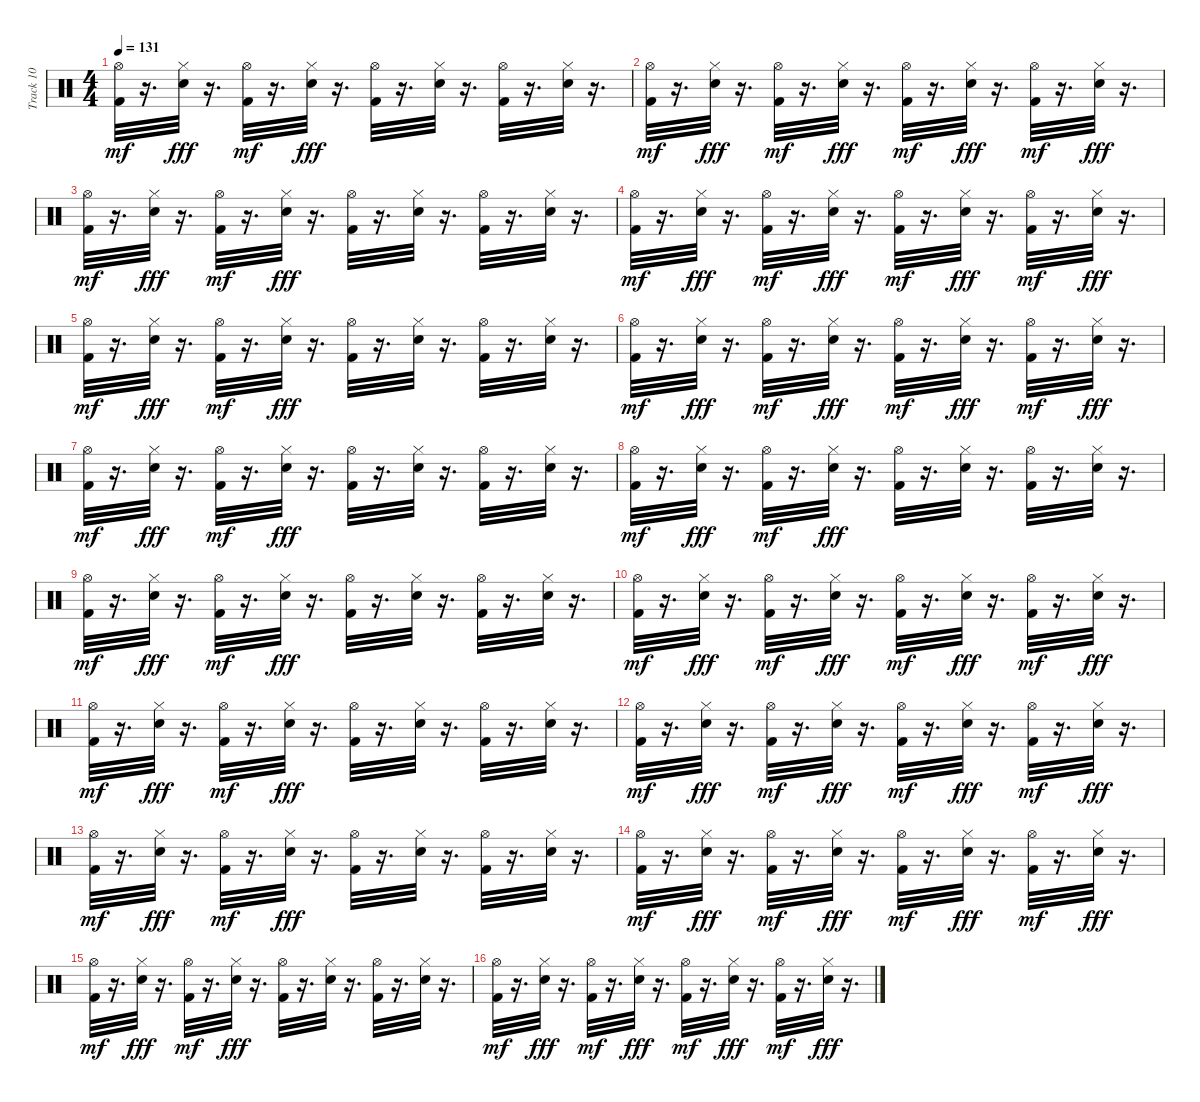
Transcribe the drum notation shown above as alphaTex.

\track ("Track 10" "Track 10") {instrument percussion}
\staff {score}
\articulation defaults
\ts (4 4)
\tempo 131
\clef neutral
\ks c
("Kick (hit) 2" "Hi-Hat (open)").32{dy mf} r.16{d} ("Snare (hit) 2" "Hi-Hat (closed)").32{dy fff} r.16{d} ("Kick (hit) 2" "Hi-Hat (open)").32{dy mf} r.16{d} ("Snare (hit) 2" "Hi-Hat (closed)").32{dy fff} r.16{d} ("Kick (hit) 2" "Hi-Hat (open)").32 r.16{d} ("Snare (hit) 2" "Hi-Hat (closed)").32 r.16{d} ("Kick (hit) 2" "Hi-Hat (open)").32 r.16{d} ("Snare (hit) 2" "Hi-Hat (closed)").32 r.16{d} |
("Kick (hit) 2" "Hi-Hat (open)").32{dy mf} r.16{d} ("Snare (hit) 2" "Hi-Hat (closed)").32{dy fff} r.16{d} ("Kick (hit) 2" "Hi-Hat (open)").32{dy mf} r.16{d} ("Snare (hit) 2" "Hi-Hat (closed)").32{dy fff} r.16{d} ("Kick (hit) 2" "Hi-Hat (open)").32{dy mf} r.16{d} ("Snare (hit) 2" "Hi-Hat (closed)").32{dy fff} r.16{d} ("Kick (hit) 2" "Hi-Hat (open)").32{dy mf} r.16{d} ("Snare (hit) 2" "Hi-Hat (closed)").32{dy fff} r.16{d} |
("Kick (hit) 2" "Hi-Hat (open)").32{dy mf} r.16{d} ("Snare (hit) 2" "Hi-Hat (closed)").32{dy fff} r.16{d} ("Kick (hit) 2" "Hi-Hat (open)").32{dy mf} r.16{d} ("Snare (hit) 2" "Hi-Hat (closed)").32{dy fff} r.16{d} ("Kick (hit) 2" "Hi-Hat (open)").32 r.16{d} ("Snare (hit) 2" "Hi-Hat (closed)").32 r.16{d} ("Kick (hit) 2" "Hi-Hat (open)").32 r.16{d} ("Snare (hit) 2" "Hi-Hat (closed)").32 r.16{d} |
("Kick (hit) 2" "Hi-Hat (open)").32{dy mf} r.16{d} ("Snare (hit) 2" "Hi-Hat (closed)").32{dy fff} r.16{d} ("Kick (hit) 2" "Hi-Hat (open)").32{dy mf} r.16{d} ("Snare (hit) 2" "Hi-Hat (closed)").32{dy fff} r.16{d} ("Kick (hit) 2" "Hi-Hat (open)").32{dy mf} r.16{d} ("Snare (hit) 2" "Hi-Hat (closed)").32{dy fff} r.16{d} ("Kick (hit) 2" "Hi-Hat (open)").32{dy mf} r.16{d} ("Snare (hit) 2" "Hi-Hat (closed)").32{dy fff} r.16{d} |
("Kick (hit) 2" "Hi-Hat (open)").32{dy mf} r.16{d} ("Snare (hit) 2" "Hi-Hat (closed)").32{dy fff} r.16{d} ("Kick (hit) 2" "Hi-Hat (open)").32{dy mf} r.16{d} ("Snare (hit) 2" "Hi-Hat (closed)").32{dy fff} r.16{d} ("Kick (hit) 2" "Hi-Hat (open)").32 r.16{d} ("Snare (hit) 2" "Hi-Hat (closed)").32 r.16{d} ("Kick (hit) 2" "Hi-Hat (open)").32 r.16{d} ("Snare (hit) 2" "Hi-Hat (closed)").32 r.16{d} |
("Kick (hit) 2" "Hi-Hat (open)").32{dy mf} r.16{d} ("Snare (hit) 2" "Hi-Hat (closed)").32{dy fff} r.16{d} ("Kick (hit) 2" "Hi-Hat (open)").32{dy mf} r.16{d} ("Snare (hit) 2" "Hi-Hat (closed)").32{dy fff} r.16{d} ("Kick (hit) 2" "Hi-Hat (open)").32{dy mf} r.16{d} ("Snare (hit) 2" "Hi-Hat (closed)").32{dy fff} r.16{d} ("Kick (hit) 2" "Hi-Hat (open)").32{dy mf} r.16{d} ("Snare (hit) 2" "Hi-Hat (closed)").32{dy fff} r.16{d} |
("Kick (hit) 2" "Hi-Hat (open)").32{dy mf} r.16{d} ("Snare (hit) 2" "Hi-Hat (closed)").32{dy fff} r.16{d} ("Kick (hit) 2" "Hi-Hat (open)").32{dy mf} r.16{d} ("Snare (hit) 2" "Hi-Hat (closed)").32{dy fff} r.16{d} ("Kick (hit) 2" "Hi-Hat (open)").32 r.16{d} ("Snare (hit) 2" "Hi-Hat (closed)").32 r.16{d} ("Kick (hit) 2" "Hi-Hat (open)").32 r.16{d} ("Snare (hit) 2" "Hi-Hat (closed)").32 r.16{d} |
("Kick (hit) 2" "Hi-Hat (open)").32{dy mf} r.16{d} ("Snare (hit) 2" "Hi-Hat (closed)").32{dy fff} r.16{d} ("Kick (hit) 2" "Hi-Hat (open)").32{dy mf} r.16{d} ("Snare (hit) 2" "Hi-Hat (closed)").32{dy fff} r.16{d} ("Kick (hit) 2" "Hi-Hat (open)").32 r.16{d} ("Snare (hit) 2" "Hi-Hat (closed)").32 r.16{d} ("Kick (hit) 2" "Hi-Hat (open)").32 r.16{d} ("Snare (hit) 2" "Hi-Hat (closed)").32 r.16{d} |
("Kick (hit) 2" "Hi-Hat (open)").32{dy mf} r.16{d} ("Snare (hit) 2" "Hi-Hat (closed)").32{dy fff} r.16{d} ("Kick (hit) 2" "Hi-Hat (open)").32{dy mf} r.16{d} ("Snare (hit) 2" "Hi-Hat (closed)").32{dy fff} r.16{d} ("Kick (hit) 2" "Hi-Hat (open)").32 r.16{d} ("Snare (hit) 2" "Hi-Hat (closed)").32 r.16{d} ("Kick (hit) 2" "Hi-Hat (open)").32 r.16{d} ("Snare (hit) 2" "Hi-Hat (closed)").32 r.16{d} |
("Kick (hit) 2" "Hi-Hat (open)").32{dy mf} r.16{d} ("Snare (hit) 2" "Hi-Hat (closed)").32{dy fff} r.16{d} ("Kick (hit) 2" "Hi-Hat (open)").32{dy mf} r.16{d} ("Snare (hit) 2" "Hi-Hat (closed)").32{dy fff} r.16{d} ("Kick (hit) 2" "Hi-Hat (open)").32{dy mf} r.16{d} ("Snare (hit) 2" "Hi-Hat (closed)").32{dy fff} r.16{d} ("Kick (hit) 2" "Hi-Hat (open)").32{dy mf} r.16{d} ("Snare (hit) 2" "Hi-Hat (closed)").32{dy fff} r.16{d} |
("Kick (hit) 2" "Hi-Hat (open)").32{dy mf} r.16{d} ("Snare (hit) 2" "Hi-Hat (closed)").32{dy fff} r.16{d} ("Kick (hit) 2" "Hi-Hat (open)").32{dy mf} r.16{d} ("Snare (hit) 2" "Hi-Hat (closed)").32{dy fff} r.16{d} ("Kick (hit) 2" "Hi-Hat (open)").32 r.16{d} ("Snare (hit) 2" "Hi-Hat (closed)").32 r.16{d} ("Kick (hit) 2" "Hi-Hat (open)").32 r.16{d} ("Snare (hit) 2" "Hi-Hat (closed)").32 r.16{d} |
("Kick (hit) 2" "Hi-Hat (open)").32{dy mf} r.16{d} ("Snare (hit) 2" "Hi-Hat (closed)").32{dy fff} r.16{d} ("Kick (hit) 2" "Hi-Hat (open)").32{dy mf} r.16{d} ("Snare (hit) 2" "Hi-Hat (closed)").32{dy fff} r.16{d} ("Kick (hit) 2" "Hi-Hat (open)").32{dy mf} r.16{d} ("Snare (hit) 2" "Hi-Hat (closed)").32{dy fff} r.16{d} ("Kick (hit) 2" "Hi-Hat (open)").32{dy mf} r.16{d} ("Snare (hit) 2" "Hi-Hat (closed)").32{dy fff} r.16{d} |
("Kick (hit) 2" "Hi-Hat (open)").32{dy mf} r.16{d} ("Snare (hit) 2" "Hi-Hat (closed)").32{dy fff} r.16{d} ("Kick (hit) 2" "Hi-Hat (open)").32{dy mf} r.16{d} ("Snare (hit) 2" "Hi-Hat (closed)").32{dy fff} r.16{d} ("Kick (hit) 2" "Hi-Hat (open)").32 r.16{d} ("Snare (hit) 2" "Hi-Hat (closed)").32 r.16{d} ("Kick (hit) 2" "Hi-Hat (open)").32 r.16{d} ("Snare (hit) 2" "Hi-Hat (closed)").32 r.16{d} |
("Kick (hit) 2" "Hi-Hat (open)").32{dy mf} r.16{d} ("Snare (hit) 2" "Hi-Hat (closed)").32{dy fff} r.16{d} ("Kick (hit) 2" "Hi-Hat (open)").32{dy mf} r.16{d} ("Snare (hit) 2" "Hi-Hat (closed)").32{dy fff} r.16{d} ("Kick (hit) 2" "Hi-Hat (open)").32{dy mf} r.16{d} ("Snare (hit) 2" "Hi-Hat (closed)").32{dy fff} r.16{d} ("Kick (hit) 2" "Hi-Hat (open)").32{dy mf} r.16{d} ("Snare (hit) 2" "Hi-Hat (closed)").32{dy fff} r.16{d} |
("Kick (hit) 2" "Hi-Hat (open)").32{dy mf} r.16{d} ("Snare (hit) 2" "Hi-Hat (closed)").32{dy fff} r.16{d} ("Kick (hit) 2" "Hi-Hat (open)").32{dy mf} r.16{d} ("Snare (hit) 2" "Hi-Hat (closed)").32{dy fff} r.16{d} ("Kick (hit) 2" "Hi-Hat (open)").32 r.16{d} ("Snare (hit) 2" "Hi-Hat (closed)").32 r.16{d} ("Kick (hit) 2" "Hi-Hat (open)").32 r.16{d} ("Snare (hit) 2" "Hi-Hat (closed)").32 r.16{d} |
("Kick (hit) 2" "Hi-Hat (open)").32{dy mf} r.16{d} ("Snare (hit) 2" "Hi-Hat (closed)").32{dy fff} r.16{d} ("Kick (hit) 2" "Hi-Hat (open)").32{dy mf} r.16{d} ("Snare (hit) 2" "Hi-Hat (closed)").32{dy fff} r.16{d} ("Kick (hit) 2" "Hi-Hat (open)").32{dy mf} r.16{d} ("Snare (hit) 2" "Hi-Hat (closed)").32{dy fff} r.16{d} ("Kick (hit) 2" "Hi-Hat (open)").32{dy mf} r.16{d} ("Snare (hit) 2" "Hi-Hat (closed)").32{dy fff} r.16{d}
